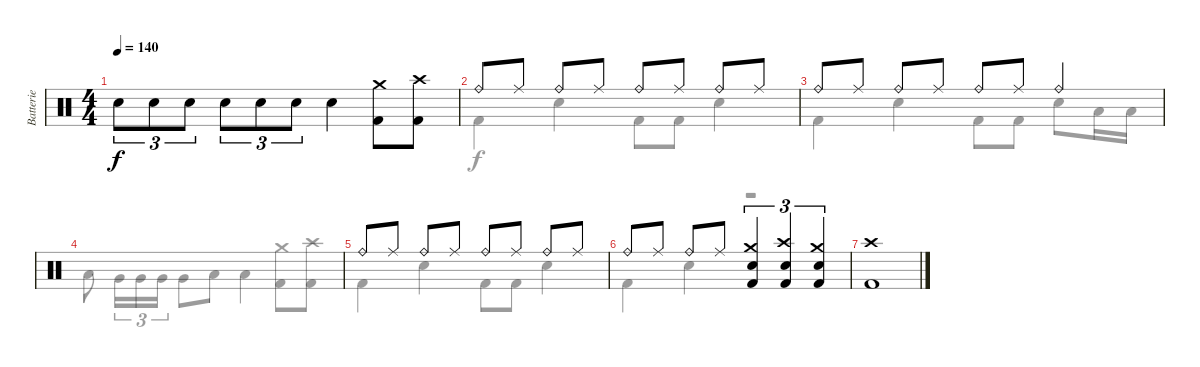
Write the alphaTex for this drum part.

\track ("Batterie" "Batterie") {instrument percussion}
\staff {score}
\articulation defaults
\voice
\ts (4 4)
\tempo 140
\clef neutral
\ks c "Electric Snare (hit)".8{tu (3 2) dy f} "Electric Snare (hit)".8{tu (3 2)} "Electric Snare (hit)".8{tu (3 2)} "Electric Snare (hit)".8{tu (3 2)} "Electric Snare (hit)".8{tu (3 2)} "Electric Snare (hit)".8{tu (3 2)} "Electric Snare (hit)".4
("Crash medium (hit)" "Kick (hit) 2").8 ("Crash high (hit)" "Kick (hit) 2").8 |
"Ride (bell)".8 "Ride (middle)".8 "Ride (bell)".8 "Ride (middle)".8 "Ride (bell)".8 "Ride (middle)".8 "Ride (bell)".8 "Ride (middle)".8 |
"Ride (bell)".8 "Ride (middle)".8 "Ride (bell)".8 "Ride (middle)".8 "Ride (bell)".8 "Ride (middle)".8 "Ride (bell)".4 |
|
"Ride (bell)".8 "Ride (middle)".8 "Ride (bell)".8 "Ride (middle)".8 "Ride (bell)".8 "Ride (middle)".8 "Ride (bell)".8 "Ride (middle)".8 |
"Ride (bell)".8 "Ride (middle)".8 "Ride (bell)".8 "Ride (middle)".8 ("Crash medium (hit)" "Electric Snare (hit)" "Kick (hit) 2").4{tu (3 2)} ("Crash high (hit)" "Electric Snare (hit)" "Kick (hit) 2").4{tu (3 2)} ("Crash medium (hit)" "Electric Snare (hit)" "Kick (hit) 2").4{tu (3 2)} |
("Crash high (hit)" "Kick (hit) 2").1 |
|
|
|
\voice
\clef neutral
\ottava regular
\simile none
\ks c
|
"Kick (hit) 2".4 "Electric Snare (hit)".4 "Kick (hit) 2".8 "Kick (hit) 2".8 "Electric Snare (hit)".4 |
"Kick (hit) 2".4 "Electric Snare (hit)".4 "Kick (hit) 2".8 "Kick (hit) 2".8 "Electric Snare (hit)".8 "Low Tom (hit)".16 "Low Tom (hit)".16 |
"Low Tom (hit)".8 "Very Low Tom (hit)".16{tu (3 2)} "Very Low Tom (hit)".16{tu (3 2)} "Very Low Tom (hit)".16{tu (3 2)} "Very Low Tom (hit)".8 "Low Floor Tom (hit)".8 "Low Floor Tom (hit)".4 ("Crash medium (hit)" "Kick (hit) 2").8 ("Crash high (hit)" "Kick (hit) 2").8 |
"Kick (hit) 2".4 "Electric Snare (hit)".4 "Kick (hit) 2".8 "Kick (hit) 2".8 "Electric Snare (hit)".4 |
"Kick (hit) 2".4 "Electric Snare (hit)".4 r.2 |
|
|
|
|
